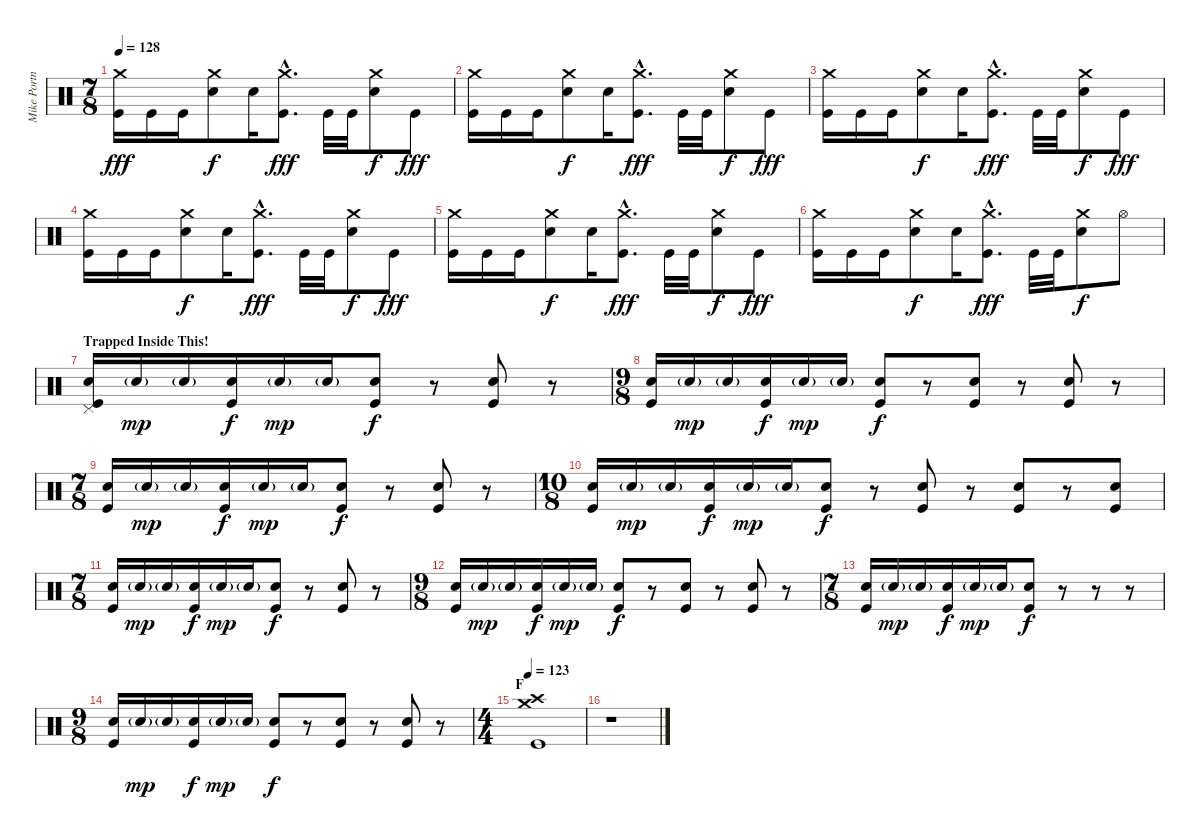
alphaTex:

\track ("Mike Portnoy" "Mike Portn") {instrument percussion}
\staff {score}
\articulation defaults
\ts (7 8)
\tempo 128
\clef neutral
\ks c
("Crash medium (hit)" "Kick (hit)").16{dy fff} "Kick (hit)".16 "Kick (hit)".16 ("Crash medium (hit)" "Electric Snare (hit)").8{dy f} "Electric Snare (hit)".16 ("Crash medium (hit)"{hac} "Kick (hit)"{hac}).8{d dy fff} "Kick (hit)".32 "Kick (hit)".32 ("Crash medium (hit)" "Electric Snare (hit)").8{dy f} "Kick (hit)".8{dy fff} |
("Crash medium (hit)" "Kick (hit)").16 "Kick (hit)".16 "Kick (hit)".16 ("Crash medium (hit)" "Electric Snare (hit)").8{dy f} "Electric Snare (hit)".16 ("Crash medium (hit)"{hac} "Kick (hit)"{hac}).8{d dy fff} "Kick (hit)".32 "Kick (hit)".32 ("Crash medium (hit)" "Electric Snare (hit)").8{dy f} "Kick (hit)".8{dy fff} |
("Crash medium (hit)" "Kick (hit)").16 "Kick (hit)".16 "Kick (hit)".16 ("Crash medium (hit)" "Electric Snare (hit)").8{dy f} "Electric Snare (hit)".16 ("Crash medium (hit)"{hac} "Kick (hit)"{hac}).8{d dy fff} "Kick (hit)".32 "Kick (hit)".32 ("Crash medium (hit)" "Electric Snare (hit)").8{dy f} "Kick (hit)".8{dy fff} |
("Crash medium (hit)" "Kick (hit)").16 "Kick (hit)".16 "Kick (hit)".16 ("Crash medium (hit)" "Electric Snare (hit)").8{dy f} "Electric Snare (hit)".16 ("Crash medium (hit)"{hac} "Kick (hit)"{hac}).8{d dy fff} "Kick (hit)".32 "Kick (hit)".32 ("Crash medium (hit)" "Electric Snare (hit)").8{dy f} "Kick (hit)".8{dy fff} |
("Crash medium (hit)" "Kick (hit)").16 "Kick (hit)".16 "Kick (hit)".16 ("Crash medium (hit)" "Electric Snare (hit)").8{dy f} "Electric Snare (hit)".16 ("Crash medium (hit)"{hac} "Kick (hit)"{hac}).8{d dy fff} "Kick (hit)".32 "Kick (hit)".32 ("Crash medium (hit)" "Electric Snare (hit)").8{dy f} "Kick (hit)".8{dy fff} |
("Crash medium (hit)" "Kick (hit)").16 "Kick (hit)".16 "Kick (hit)".16 ("Crash medium (hit)" "Electric Snare (hit)").8{dy f} "Electric Snare (hit)".16 ("Crash medium (hit)"{hac} "Kick (hit)"{hac}).8{d dy fff} "Kick (hit)".32 "Kick (hit)".32 ("Crash medium (hit)" "Electric Snare (hit)").8{dy f} "Hi-Hat (open)".8 |
\section ("" "Trapped Inside This!")
("Electric Snare (hit)" "Pedal Hi-Hat (hit)" "Kick (hit)").16 "Electric Snare (hit)"{g}.16{dy mp} "Electric Snare (hit)"{g}.16 ("Electric Snare (hit)" "Kick (hit)").16{dy f} "Electric Snare (hit)"{g}.16{dy mp} "Electric Snare (hit)"{g}.16 ("Electric Snare (hit)" "Kick (hit)").8{dy f} r.8 ("Electric Snare (hit)" "Kick (hit)").8 r.8 |
\ts (9 8)
("Electric Snare (hit)" "Kick (hit)").16 "Electric Snare (hit)"{g}.16{dy mp} "Electric Snare (hit)"{g}.16 ("Electric Snare (hit)" "Kick (hit)").16{dy f} "Electric Snare (hit)"{g}.16{dy mp} "Electric Snare (hit)"{g}.16 ("Electric Snare (hit)" "Kick (hit)").8{dy f} r.8 ("Electric Snare (hit)" "Kick (hit)").8 r.8 ("Electric Snare (hit)" "Kick (hit)").8 r.8 |
\ts (7 8)
("Electric Snare (hit)" "Kick (hit)").16 "Electric Snare (hit)"{g}.16{dy mp} "Electric Snare (hit)"{g}.16 ("Electric Snare (hit)" "Kick (hit)").16{dy f} "Electric Snare (hit)"{g}.16{dy mp} "Electric Snare (hit)"{g}.16 ("Electric Snare (hit)" "Kick (hit)").8{dy f} r.8 ("Electric Snare (hit)" "Kick (hit)").8 r.8 |
\ts (10 8)
("Electric Snare (hit)" "Kick (hit)").16 "Electric Snare (hit)"{g}.16{dy mp} "Electric Snare (hit)"{g}.16 ("Electric Snare (hit)" "Kick (hit)").16{dy f} "Electric Snare (hit)"{g}.16{dy mp} "Electric Snare (hit)"{g}.16 ("Electric Snare (hit)" "Kick (hit)").8{dy f} r.8 ("Electric Snare (hit)" "Kick (hit)").8 r.8 ("Electric Snare (hit)" "Kick (hit)").8 r.8 ("Electric Snare (hit)" "Kick (hit)").8 |
\ts (7 8)
("Electric Snare (hit)" "Kick (hit)").16 "Electric Snare (hit)"{g}.16{dy mp} "Electric Snare (hit)"{g}.16 ("Electric Snare (hit)" "Kick (hit)").16{dy f} "Electric Snare (hit)"{g}.16{dy mp} "Electric Snare (hit)"{g}.16 ("Electric Snare (hit)" "Kick (hit)").8{dy f} r.8 ("Electric Snare (hit)" "Kick (hit)").8 r.8 |
\ts (9 8)
("Electric Snare (hit)" "Kick (hit)").16 "Electric Snare (hit)"{g}.16{dy mp} "Electric Snare (hit)"{g}.16 ("Electric Snare (hit)" "Kick (hit)").16{dy f} "Electric Snare (hit)"{g}.16{dy mp} "Electric Snare (hit)"{g}.16 ("Electric Snare (hit)" "Kick (hit)").8{dy f} r.8 ("Electric Snare (hit)" "Kick (hit)").8 r.8 ("Electric Snare (hit)" "Kick (hit)").8 r.8 |
\ts (7 8)
("Electric Snare (hit)" "Kick (hit)").16 "Electric Snare (hit)"{g}.16{dy mp} "Electric Snare (hit)"{g}.16 ("Electric Snare (hit)" "Kick (hit)").16{dy f} "Electric Snare (hit)"{g}.16{dy mp} "Electric Snare (hit)"{g}.16 ("Electric Snare (hit)" "Kick (hit)").8{dy f} r.8 r.8 r.8 |
\ts (9 8)
("Electric Snare (hit)" "Kick (hit)").16 "Electric Snare (hit)"{g}.16{dy mp} "Electric Snare (hit)"{g}.16 ("Electric Snare (hit)" "Kick (hit)").16{dy f} "Electric Snare (hit)"{g}.16{dy mp} "Electric Snare (hit)"{g}.16 ("Electric Snare (hit)" "Kick (hit)").8{dy f} r.8 ("Electric Snare (hit)" "Kick (hit)").8 r.8 ("Electric Snare (hit)" "Kick (hit)").8 r.8 |
\ts (4 4)
\section ("" "F")
\tempo 123
("Crash high (hit)" "Crash medium (hit)" "Kick (hit)").1 |
r.1
